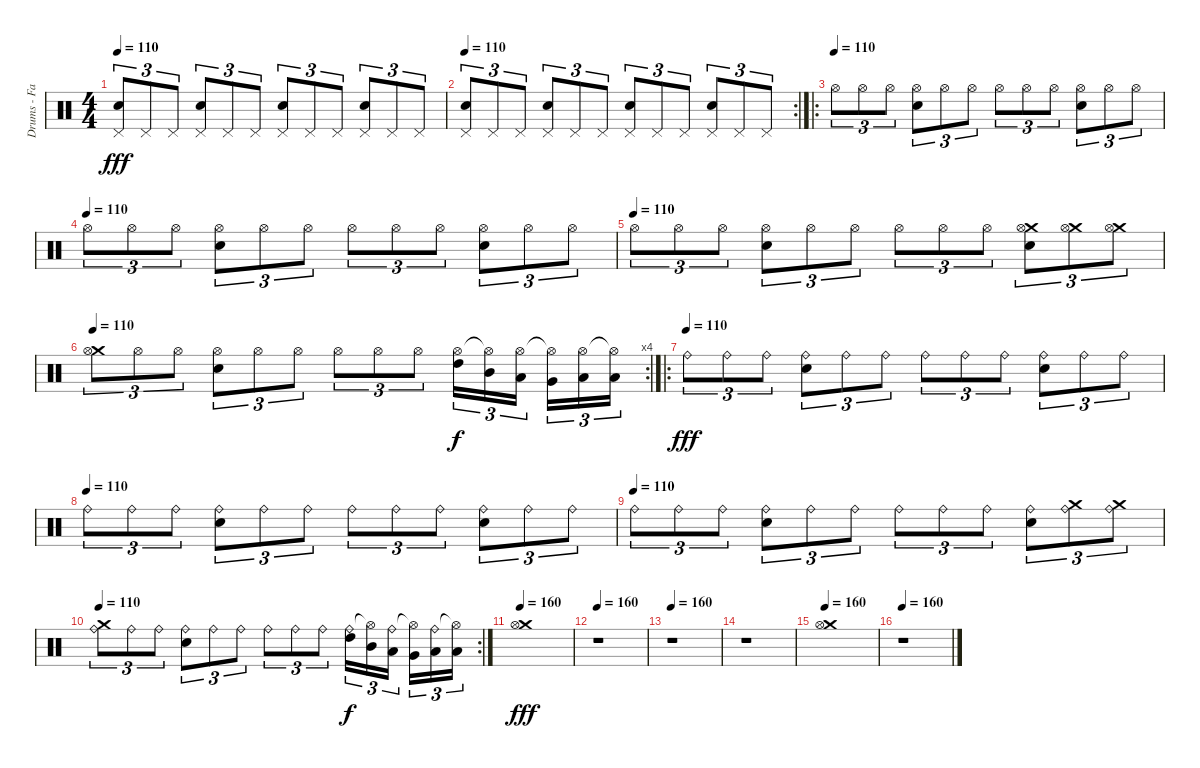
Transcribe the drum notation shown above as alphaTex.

\track ("Drums - Faust" "Drums - Fa") {instrument percussion}
\staff {score}
\articulation defaults
\ts (4 4)
\tempo 110
\clef neutral
\ks c
("Pedal Hi-Hat (hit)" "Electric Snare (hit)").8{tu (3 2) dy fff} "Pedal Hi-Hat (hit)".8{tu (3 2)} "Pedal Hi-Hat (hit)".8{tu (3 2)} ("Pedal Hi-Hat (hit)" "Electric Snare (hit)").8{tu (3 2)} "Pedal Hi-Hat (hit)".8{tu (3 2)} "Pedal Hi-Hat (hit)".8{tu (3 2)} ("Pedal Hi-Hat (hit)" "Electric Snare (hit)").8{tu (3 2)} "Pedal Hi-Hat (hit)".8{tu (3 2)} "Pedal Hi-Hat (hit)".8{tu (3 2)} ("Pedal Hi-Hat (hit)" "Electric Snare (hit)").8{tu (3 2)} "Pedal Hi-Hat (hit)".8{tu (3 2)} "Pedal Hi-Hat (hit)".8{tu (3 2)} |
\rc 2
\tempo 110
("Pedal Hi-Hat (hit)" "Electric Snare (hit)").8{tu (3 2)} "Pedal Hi-Hat (hit)".8{tu (3 2)} "Pedal Hi-Hat (hit)".8{tu (3 2)} ("Pedal Hi-Hat (hit)" "Electric Snare (hit)").8{tu (3 2)} "Pedal Hi-Hat (hit)".8{tu (3 2)} "Pedal Hi-Hat (hit)".8{tu (3 2)} ("Pedal Hi-Hat (hit)" "Electric Snare (hit)").8{tu (3 2)} "Pedal Hi-Hat (hit)".8{tu (3 2)} "Pedal Hi-Hat (hit)".8{tu (3 2)} ("Pedal Hi-Hat (hit)" "Electric Snare (hit)").8{tu (3 2)} "Pedal Hi-Hat (hit)".8{tu (3 2)} "Pedal Hi-Hat (hit)".8{tu (3 2)} |
\ro
\tempo (110)
"Hi-Hat (open)".8{tu (3 2)} "Hi-Hat (open)".8{tu (3 2)} "Hi-Hat (open)".8{tu (3 2)} ("Electric Snare (hit)" "Hi-Hat (open)").8{tu (3 2)} "Hi-Hat (open)".8{tu (3 2)} "Hi-Hat (open)".8{tu (3 2)} "Hi-Hat (open)".8{tu (3 2)} "Hi-Hat (open)".8{tu (3 2)} "Hi-Hat (open)".8{tu (3 2)} ("Electric Snare (hit)" "Hi-Hat (open)").8{tu (3 2)} "Hi-Hat (open)".8{tu (3 2)} "Hi-Hat (open)".8{tu (3 2)} |
\tempo (110)
"Hi-Hat (open)".8{tu (3 2)} "Hi-Hat (open)".8{tu (3 2)} "Hi-Hat (open)".8{tu (3 2)} ("Electric Snare (hit)" "Hi-Hat (open)").8{tu (3 2)} "Hi-Hat (open)".8{tu (3 2)} "Hi-Hat (open)".8{tu (3 2)} "Hi-Hat (open)".8{tu (3 2)} "Hi-Hat (open)".8{tu (3 2)} "Hi-Hat (open)".8{tu (3 2)} ("Electric Snare (hit)" "Hi-Hat (open)").8{tu (3 2)} "Hi-Hat (open)".8{tu (3 2)} "Hi-Hat (open)".8{tu (3 2)} |
\tempo (110)
"Hi-Hat (open)".8{tu (3 2)} "Hi-Hat (open)".8{tu (3 2)} "Hi-Hat (open)".8{tu (3 2)} ("Electric Snare (hit)" "Hi-Hat (open)").8{tu (3 2)} "Hi-Hat (open)".8{tu (3 2)} "Hi-Hat (open)".8{tu (3 2)} "Hi-Hat (open)".8{tu (3 2)} "Hi-Hat (open)".8{tu (3 2)} "Hi-Hat (open)".8{tu (3 2)} ("Crash medium (hit)" "Electric Snare (hit)" "Hi-Hat (open)").8{tu (3 2)} ("Crash medium (hit)" "Hi-Hat (open)").8{tu (3 2)} ("Crash medium (hit)" "Hi-Hat (open)").8{tu (3 2)} |
\rc 4
\tempo 110
("Crash medium (hit)" "Hi-Hat (open)").8{tu (3 2)} "Hi-Hat (open)".8{tu (3 2)} "Hi-Hat (open)".8{tu (3 2)} ("Electric Snare (hit)" "Hi-Hat (open)").8{tu (3 2)} "Hi-Hat (open)".8{tu (3 2)} "Hi-Hat (open)".8{tu (3 2)} "Hi-Hat (open)".8{tu (3 2)} "Hi-Hat (open)".8{tu (3 2)} "Hi-Hat (open)".8{tu (3 2)} ("High Tom (hit)" "Hi-Hat (open)").16{tu (3 2) dy f} ("Mid Tom (hit)" "Hi-Hat (open)"{t}).16{tu (3 2)} ("Low Tom (hit)" "Hi-Hat (open)").16{tu (3 2)} ("Very Low Tom (hit)" "Hi-Hat (open)"{t}).16{tu (3 2)} ("Low Floor Tom (hit)" "Hi-Hat (open)").16{tu (3 2)} ("Low Floor Tom (hit)" "Hi-Hat (open)"{t}).16{tu (3 2)} |
\ro
\tempo (110)
"Ride (bell)".8{tu (3 2) dy fff} "Ride (bell)".8{tu (3 2)} "Ride (bell)".8{tu (3 2)} ("Electric Snare (hit)" "Ride (bell)").8{tu (3 2)} "Ride (bell)".8{tu (3 2)} "Ride (bell)".8{tu (3 2)} "Ride (bell)".8{tu (3 2)} "Ride (bell)".8{tu (3 2)} "Ride (bell)".8{tu (3 2)} ("Electric Snare (hit)" "Ride (bell)").8{tu (3 2)} "Ride (bell)".8{tu (3 2)} "Ride (bell)".8{tu (3 2)} |
\tempo (110)
"Ride (bell)".8{tu (3 2)} "Ride (bell)".8{tu (3 2)} "Ride (bell)".8{tu (3 2)} ("Electric Snare (hit)" "Ride (bell)").8{tu (3 2)} "Ride (bell)".8{tu (3 2)} "Ride (bell)".8{tu (3 2)} "Ride (bell)".8{tu (3 2)} "Ride (bell)".8{tu (3 2)} "Ride (bell)".8{tu (3 2)} ("Electric Snare (hit)" "Ride (bell)").8{tu (3 2)} "Ride (bell)".8{tu (3 2)} "Ride (bell)".8{tu (3 2)} |
\tempo (110)
"Ride (bell)".8{tu (3 2)} "Ride (bell)".8{tu (3 2)} "Ride (bell)".8{tu (3 2)} ("Electric Snare (hit)" "Ride (bell)").8{tu (3 2)} "Ride (bell)".8{tu (3 2)} "Ride (bell)".8{tu (3 2)} "Ride (bell)".8{tu (3 2)} "Ride (bell)".8{tu (3 2)} "Ride (bell)".8{tu (3 2)} ("Electric Snare (hit)" "Ride (bell)").8{tu (3 2)} ("Crash medium (hit)" "Ride (bell)").8{tu (3 2)} ("Crash medium (hit)" "Ride (bell)").8{tu (3 2)} |
\rc 2
\tempo 110
("Crash medium (hit)" "Ride (bell)").8{tu (3 2)} "Ride (bell)".8{tu (3 2)} "Ride (bell)".8{tu (3 2)} ("Electric Snare (hit)" "Ride (bell)").8{tu (3 2)} "Ride (bell)".8{tu (3 2)} "Ride (bell)".8{tu (3 2)} "Ride (bell)".8{tu (3 2)} "Ride (bell)".8{tu (3 2)} "Ride (bell)".8{tu (3 2)} ("High Tom (hit)" "Ride (bell)").16{tu (3 2) dy f} ("Mid Tom (hit)" "Hi-Hat (open)"{t}).16{tu (3 2)} ("Low Tom (hit)" "Ride (bell)").16{tu (3 2)} ("Very Low Tom (hit)" "Hi-Hat (open)"{t}).16{tu (3 2)} ("Low Floor Tom (hit)" "Ride (bell)").16{tu (3 2)} ("Low Floor Tom (hit)" "Hi-Hat (open)"{t}).16{tu (3 2)} |
\tempo 160
("Crash medium (hit)" "Hi-Hat (open)").1{dy fff} |
\tempo 160
r.1 |
\tempo 160
r.1 |
r.1 |
\tempo 160
("Crash medium (hit)" "Hi-Hat (open)").1 |
\tempo 160
r.1
